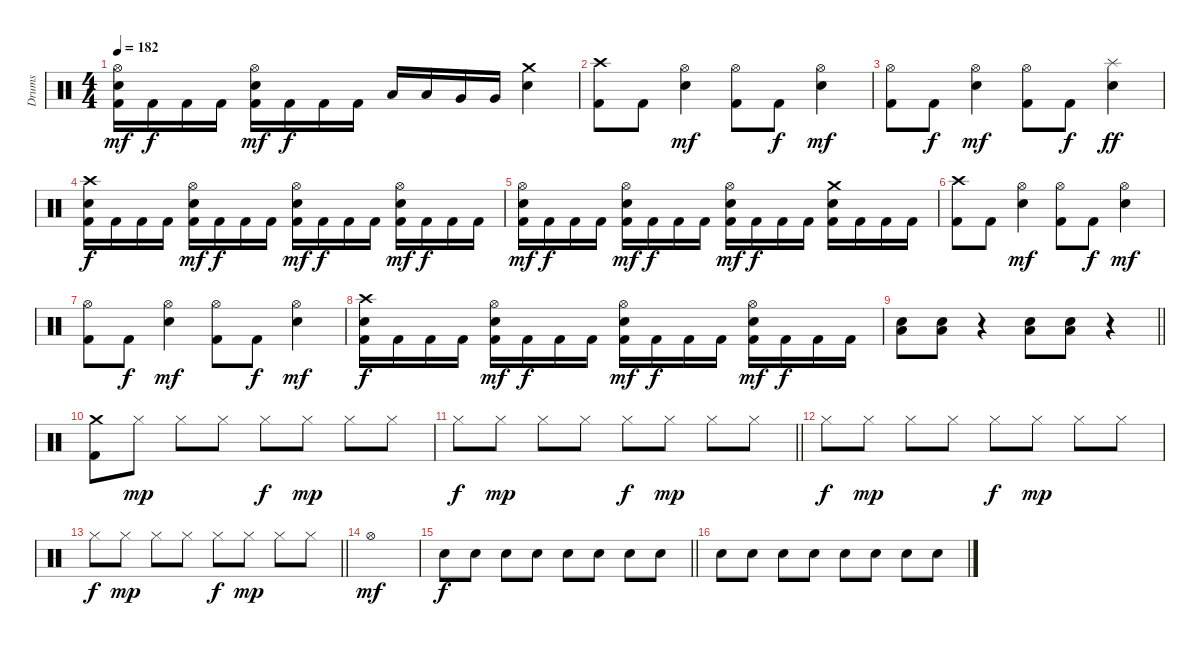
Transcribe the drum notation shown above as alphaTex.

\track ("Drums" "Drums") {instrument percussion}
\staff {score}
\articulation defaults
\ts (4 4)
\tempo 182
\clef neutral
\ks c
("Hi-Hat (open)" "Electric Snare (hit)" "Kick (hit) 2").16{dy mf} "Kick (hit) 2".16{dy f} "Kick (hit) 2".16 "Kick (hit) 2".16 ("Hi-Hat (open)" "Electric Snare (hit)" "Kick (hit) 2").16{dy mf} "Kick (hit) 2".16{dy f} "Kick (hit) 2".16 "Kick (hit) 2".16 "Low Tom (hit)".16 "Low Tom (hit)".16 "Very Low Tom (hit)".16 "Very Low Tom (hit)".16 ("Crash medium (hit)" "Electric Snare (hit)").4 |
("Crash high (hit)" "Kick (hit) 2").8 "Kick (hit) 2".8 ("Hi-Hat (open)" "Electric Snare (hit)").4{dy mf} ("Hi-Hat (open)" "Kick (hit) 2").8 "Kick (hit) 2".8{dy f} ("Hi-Hat (open)" "Electric Snare (hit)").4{dy mf} |
("Hi-Hat (open)" "Kick (hit) 2").8 "Kick (hit) 2".8{dy f} ("Hi-Hat (open)" "Electric Snare (hit)").4{dy mf} ("Hi-Hat (open)" "Kick (hit) 2").8 "Kick (hit) 2".8{dy f} ("Splash (hit)" "Electric Snare (hit)").4{dy ff} |
("Crash high (hit)" "Electric Snare (hit)" "Kick (hit) 2").16{dy f} "Kick (hit) 2".16 "Kick (hit) 2".16 "Kick (hit) 2".16 ("Hi-Hat (open)" "Electric Snare (hit)" "Kick (hit) 2").16{dy mf} "Kick (hit) 2".16{dy f} "Kick (hit) 2".16 "Kick (hit) 2".16 ("Hi-Hat (open)" "Electric Snare (hit)" "Kick (hit) 2").16{dy mf} "Kick (hit) 2".16{dy f} "Kick (hit) 2".16 "Kick (hit) 2".16 ("Hi-Hat (open)" "Electric Snare (hit)" "Kick (hit) 2").16{dy mf} "Kick (hit) 2".16{dy f} "Kick (hit) 2".16 "Kick (hit) 2".16 |
("Hi-Hat (open)" "Electric Snare (hit)" "Kick (hit) 2").16{dy mf} "Kick (hit) 2".16{dy f} "Kick (hit) 2".16 "Kick (hit) 2".16 ("Hi-Hat (open)" "Electric Snare (hit)" "Kick (hit) 2").16{dy mf} "Kick (hit) 2".16{dy f} "Kick (hit) 2".16 "Kick (hit) 2".16 ("Hi-Hat (open)" "Electric Snare (hit)" "Kick (hit) 2").16{dy mf} "Kick (hit) 2".16{dy f} "Kick (hit) 2".16 "Kick (hit) 2".16 ("Crash medium (hit)" "Electric Snare (hit)" "Kick (hit) 2").16 "Kick (hit) 2".16 "Kick (hit) 2".16 "Kick (hit) 2".16 |
("Crash high (hit)" "Kick (hit) 2").8 "Kick (hit) 2".8 ("Hi-Hat (open)" "Electric Snare (hit)").4{dy mf} ("Hi-Hat (open)" "Kick (hit) 2").8 "Kick (hit) 2".8{dy f} ("Hi-Hat (open)" "Electric Snare (hit)").4{dy mf} |
("Hi-Hat (open)" "Kick (hit) 2").8 "Kick (hit) 2".8{dy f} ("Hi-Hat (open)" "Electric Snare (hit)").4{dy mf} ("Hi-Hat (open)" "Kick (hit) 2").8 "Kick (hit) 2".8{dy f} ("Hi-Hat (open)" "Electric Snare (hit)").4{dy mf} |
("Crash high (hit)" "Electric Snare (hit)" "Kick (hit) 2").16{dy f} "Kick (hit) 2".16 "Kick (hit) 2".16 "Kick (hit) 2".16 ("Hi-Hat (open)" "Electric Snare (hit)" "Kick (hit) 2").16{dy mf} "Kick (hit) 2".16{dy f} "Kick (hit) 2".16 "Kick (hit) 2".16 ("Hi-Hat (open)" "Electric Snare (hit)" "Kick (hit) 2").16{dy mf} "Kick (hit) 2".16{dy f} "Kick (hit) 2".16 "Kick (hit) 2".16 ("Hi-Hat (open)" "Electric Snare (hit)" "Kick (hit) 2").16{dy mf} "Kick (hit) 2".16{dy f} "Kick (hit) 2".16 "Kick (hit) 2".16 |
\barLineRight lightlight
("Low Floor Tom (hit)" "Electric Snare (hit)").8 ("Low Floor Tom (hit)" "Electric Snare (hit)").8 r.4 ("Low Floor Tom (hit)" "Electric Snare (hit)").8 ("Low Floor Tom (hit)" "Electric Snare (hit)").8 r.4 |
("Crash medium (hit)" "Kick (hit) 2").8 "Hi-Hat (closed)".8{dy mp} "Hi-Hat (closed)".8 "Hi-Hat (closed)".8 "Hi-Hat (closed)".8{dy f} "Hi-Hat (closed)".8{dy mp} "Hi-Hat (closed)".8 "Hi-Hat (closed)".8 |
\barLineRight lightlight "Hi-Hat (closed)".8{dy f} "Hi-Hat (closed)".8{dy mp} "Hi-Hat (closed)".8 "Hi-Hat (closed)".8 "Hi-Hat (closed)".8{dy f} "Hi-Hat (closed)".8{dy mp} "Hi-Hat (closed)".8 "Hi-Hat (closed)".8
|
"Hi-Hat (closed)".8{dy f} "Hi-Hat (closed)".8{dy mp} "Hi-Hat (closed)".8 "Hi-Hat (closed)".8 "Hi-Hat (closed)".8{dy f} "Hi-Hat (closed)".8{dy mp} "Hi-Hat (closed)".8 "Hi-Hat (closed)".8 |
\barLineRight lightlight "Hi-Hat (closed)".8{dy f} "Hi-Hat (closed)".8{dy mp} "Hi-Hat (closed)".8 "Hi-Hat (closed)".8 "Hi-Hat (closed)".8{dy f} "Hi-Hat (closed)".8{dy mp} "Hi-Hat (closed)".8 "Hi-Hat (closed)".8
|
"Hi-Hat (open)".1{dy mf} |
\barLineRight lightlight "Electric Snare (hit)".8{dy f volume 2} "Electric Snare (hit)".8{volume 14} "Electric Snare (hit)".8 "Electric Snare (hit)".8 "Electric Snare (hit)".8 "Electric Snare (hit)".8 "Electric Snare (hit)".8 "Electric Snare (hit)".8
|
"Electric Snare (hit)".8 "Electric Snare (hit)".8 "Electric Snare (hit)".8 "Electric Snare (hit)".8 "Electric Snare (hit)".8 "Electric Snare (hit)".8 "Electric Snare (hit)".8 "Electric Snare (hit)".8
